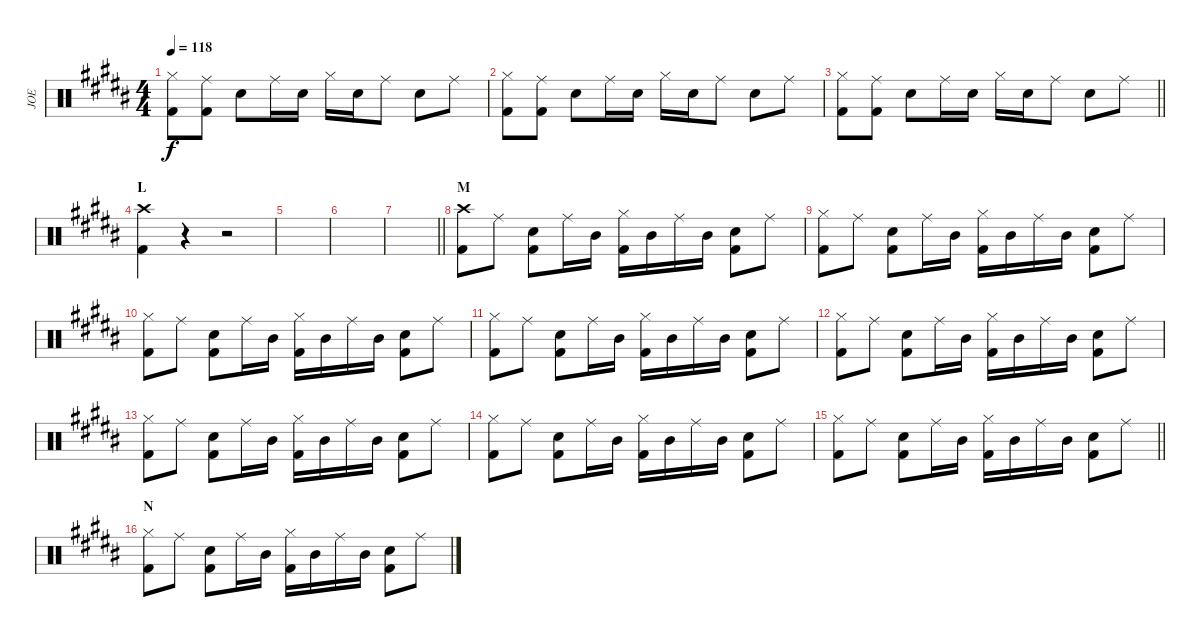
\track ("JOE" "JOE") {instrument percussion}
\staff {score}
\articulation defaults
\ts (4 4)
\tempo 118
\clef neutral
\ks b
("Hi-Hat (closed)" "Kick (hit) 2").8{dy f} ("Ride (middle)" "Kick (hit) 2").8 "Snare (hit) 2".8 "Ride (middle)".16 "Snare (hit) 2".16 "Hi-Hat (closed)".16 "Snare (hit) 2".16 "Ride (middle)".8 "Snare (hit) 2".8 "Ride (middle)".8 |
("Hi-Hat (closed)" "Kick (hit) 2").8 ("Ride (middle)" "Kick (hit) 2").8 "Snare (hit) 2".8 "Ride (middle)".16 "Snare (hit) 2".16 "Hi-Hat (closed)".16 "Snare (hit) 2".16 "Ride (middle)".8 "Snare (hit) 2".8 "Ride (middle)".8 |
\barLineRight lightlight
("Hi-Hat (closed)" "Kick (hit) 2").8 ("Ride (middle)" "Kick (hit) 2").8 "Snare (hit) 2".8 "Ride (middle)".16 "Snare (hit) 2".16 "Hi-Hat (closed)".16 "Snare (hit) 2".16 "Ride (middle)".8 "Snare (hit) 2".8 "Ride (middle)".8 |
\section ("" "L")
("Crash high (hit)" "Kick (hit) 2").4 r.4 r.2 |
|
|
\barLineRight lightlight
|
\section ("" "M")
("Crash high (hit)" "Kick (hit) 2").8 "Ride (middle)".8 ("Snare (hit) 2" "Kick (hit) 2").8 "Ride (middle)".16 "Mid Tom (hit)".16 ("Hi-Hat (closed)" "Kick (hit) 2").16 "Mid Tom (hit)".16 "Ride (middle)".16 "Mid Tom (hit)".16 ("Snare (hit) 2" "Kick (hit) 2").8 "Ride (middle)".8 |
("Hi-Hat (closed)" "Kick (hit) 2").8 "Ride (middle)".8 ("Kick (hit) 2" "Snare (hit) 2").8 "Ride (middle)".16 "Mid Tom (hit)".16 ("Hi-Hat (closed)" "Kick (hit) 2").16 "Mid Tom (hit)".16 "Ride (middle)".16 "Mid Tom (hit)".16 ("Snare (hit) 2" "Kick (hit) 2").8 "Ride (middle)".8 |
("Hi-Hat (closed)" "Kick (hit) 2").8 "Ride (middle)".8 ("Kick (hit) 2" "Snare (hit) 2").8 "Ride (middle)".16 "Mid Tom (hit)".16 ("Hi-Hat (closed)" "Kick (hit) 2").16 "Mid Tom (hit)".16 "Ride (middle)".16 "Mid Tom (hit)".16 ("Snare (hit) 2" "Kick (hit) 2").8 "Ride (middle)".8 |
("Hi-Hat (closed)" "Kick (hit) 2").8 "Ride (middle)".8 ("Kick (hit) 2" "Snare (hit) 2").8 "Ride (middle)".16 "Mid Tom (hit)".16 ("Hi-Hat (closed)" "Kick (hit) 2").16 "Mid Tom (hit)".16 "Ride (middle)".16 "Mid Tom (hit)".16 ("Snare (hit) 2" "Kick (hit) 2").8 "Ride (middle)".8 |
("Hi-Hat (closed)" "Kick (hit) 2").8 "Ride (middle)".8 ("Kick (hit) 2" "Snare (hit) 2").8 "Ride (middle)".16 "Mid Tom (hit)".16 ("Hi-Hat (closed)" "Kick (hit) 2").16 "Mid Tom (hit)".16 "Ride (middle)".16 "Mid Tom (hit)".16 ("Snare (hit) 2" "Kick (hit) 2").8 "Ride (middle)".8 |
("Hi-Hat (closed)" "Kick (hit) 2").8 "Ride (middle)".8 ("Kick (hit) 2" "Snare (hit) 2").8 "Ride (middle)".16 "Mid Tom (hit)".16 ("Hi-Hat (closed)" "Kick (hit) 2").16 "Mid Tom (hit)".16 "Ride (middle)".16 "Mid Tom (hit)".16 ("Snare (hit) 2" "Kick (hit) 2").8 "Ride (middle)".8 |
("Hi-Hat (closed)" "Kick (hit) 2").8 "Ride (middle)".8 ("Kick (hit) 2" "Snare (hit) 2").8 "Ride (middle)".16 "Mid Tom (hit)".16 ("Hi-Hat (closed)" "Kick (hit) 2").16 "Mid Tom (hit)".16 "Ride (middle)".16 "Mid Tom (hit)".16 ("Snare (hit) 2" "Kick (hit) 2").8 "Ride (middle)".8 |
\barLineRight lightlight
("Hi-Hat (closed)" "Kick (hit) 2").8 "Ride (middle)".8 ("Kick (hit) 2" "Snare (hit) 2").8 "Ride (middle)".16 "Mid Tom (hit)".16 ("Hi-Hat (closed)" "Kick (hit) 2").16 "Mid Tom (hit)".16 "Ride (middle)".16 "Mid Tom (hit)".16 ("Snare (hit) 2" "Kick (hit) 2").8 "Ride (middle)".8 |
\section ("" "N")
("Hi-Hat (closed)" "Kick (hit) 2").8 "Ride (middle)".8 ("Kick (hit) 2" "Snare (hit) 2").8 "Ride (middle)".16 "Mid Tom (hit)".16 ("Hi-Hat (closed)" "Kick (hit) 2").16 "Mid Tom (hit)".16 "Ride (middle)".16 "Mid Tom (hit)".16 ("Snare (hit) 2" "Kick (hit) 2").8 "Ride (middle)".8
